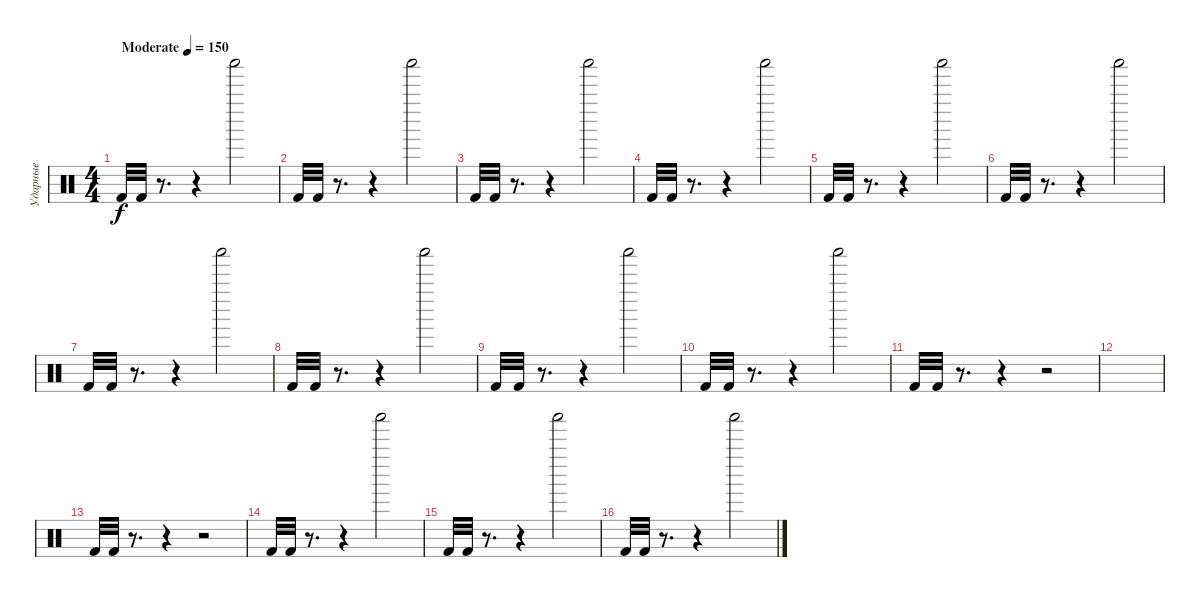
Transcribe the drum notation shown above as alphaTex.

\track ("Ударные" "Ударные") {instrument percussion}
\staff {score}
\articulation defaults
\ts (4 4)
\tempo (150 "Moderate")
\clef neutral
\ks c "Kick (hit) 2".32{dy f} "Kick (hit) 2".32
r.8{d} r.4 "Shaker (hit)".2 |
"Kick (hit) 2".32 "Kick (hit) 2".32 r.8{d} r.4 "Shaker (hit)".2 |
"Kick (hit) 2".32 "Kick (hit) 2".32 r.8{d} r.4 "Shaker (hit)".2 |
"Kick (hit) 2".32 "Kick (hit) 2".32 r.8{d} r.4 "Shaker (hit)".2 |
"Kick (hit) 2".32 "Kick (hit) 2".32 r.8{d} r.4 "Shaker (hit)".2 |
"Kick (hit) 2".32 "Kick (hit) 2".32 r.8{d} r.4 "Shaker (hit)".2 |
"Kick (hit) 2".32 "Kick (hit) 2".32 r.8{d} r.4 "Shaker (hit)".2 |
"Kick (hit) 2".32 "Kick (hit) 2".32 r.8{d} r.4 "Shaker (hit)".2 |
"Kick (hit) 2".32 "Kick (hit) 2".32 r.8{d} r.4 "Shaker (hit)".2 |
"Kick (hit) 2".32 "Kick (hit) 2".32 r.8{d} r.4 "Shaker (hit)".2 |
"Kick (hit) 2".32 "Kick (hit) 2".32 r.8{d} r.4 r.2 |
|
"Kick (hit) 2".32 "Kick (hit) 2".32 r.8{d} r.4 r.2 |
"Kick (hit) 2".32 "Kick (hit) 2".32 r.8{d} r.4 "Shaker (hit)".2 |
"Kick (hit) 2".32 "Kick (hit) 2".32 r.8{d} r.4 "Shaker (hit)".2 |
"Kick (hit) 2".32 "Kick (hit) 2".32 r.8{d} r.4 "Shaker (hit)".2
